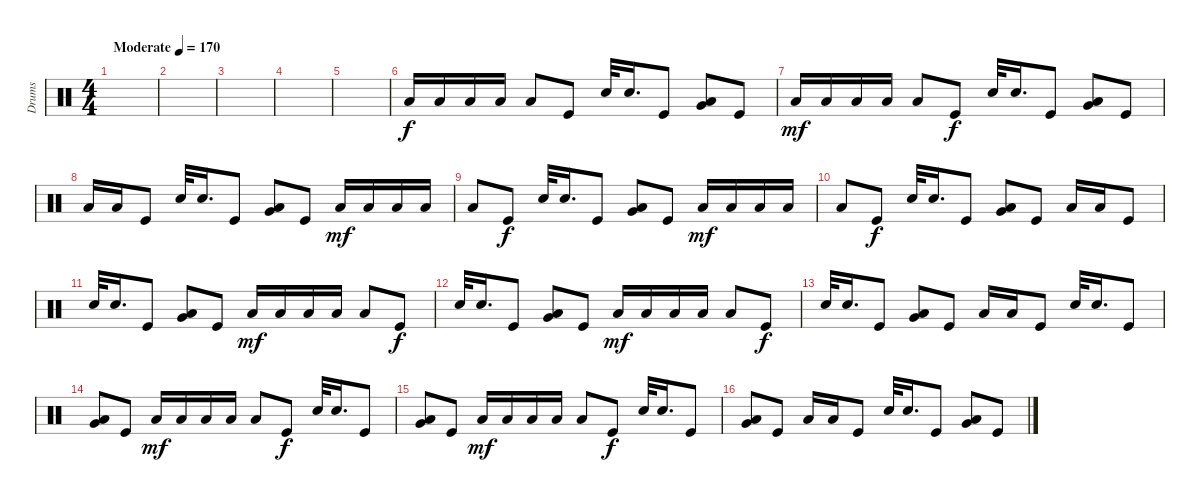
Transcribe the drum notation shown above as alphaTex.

\track ("Drums" "Drums") {instrument percussion}
\staff {score}
\articulation defaults
\ts (4 4)
\tempo (170 "Moderate")
\clef neutral
\ks c
|
|
|
|
|
"Low Floor Tom (hit)".16 "Low Floor Tom (hit)".16 "Low Floor Tom (hit)".16 "Low Floor Tom (hit)".16 "Low Floor Tom (hit)".8 "Kick (hit)".8{dy f} "Electric Snare (hit)".32 "Electric Snare (hit)".16{d} "Kick (hit)".8 ("Low Floor Tom (hit)" "Very Low Tom (hit)").8 "Kick (hit)".8 |
"Low Floor Tom (hit)".16{dy mf} "Low Floor Tom (hit)".16 "Low Floor Tom (hit)".16 "Low Floor Tom (hit)".16 "Low Floor Tom (hit)".8 "Kick (hit)".8{dy f} "Electric Snare (hit)".32 "Electric Snare (hit)".16{d} "Kick (hit)".8 ("Low Floor Tom (hit)" "Very Low Tom (hit)").8 "Kick (hit)".8 |
"Low Floor Tom (hit)".16 "Low Floor Tom (hit)".16 "Kick (hit)".8 "Electric Snare (hit)".32 "Electric Snare (hit)".16{d} "Kick (hit)".8 ("Low Floor Tom (hit)" "Very Low Tom (hit)").8 "Kick (hit)".8 "Low Floor Tom (hit)".16{dy mf} "Low Floor Tom (hit)".16 "Low Floor Tom (hit)".16 "Low Floor Tom (hit)".16 |
"Low Floor Tom (hit)".8 "Kick (hit)".8{dy f} "Electric Snare (hit)".32 "Electric Snare (hit)".16{d} "Kick (hit)".8 ("Low Floor Tom (hit)" "Very Low Tom (hit)").8 "Kick (hit)".8 "Low Floor Tom (hit)".16{dy mf} "Low Floor Tom (hit)".16 "Low Floor Tom (hit)".16 "Low Floor Tom (hit)".16 |
"Low Floor Tom (hit)".8 "Kick (hit)".8{dy f} "Electric Snare (hit)".32 "Electric Snare (hit)".16{d} "Kick (hit)".8 ("Low Floor Tom (hit)" "Very Low Tom (hit)").8 "Kick (hit)".8 "Low Floor Tom (hit)".16 "Low Floor Tom (hit)".16 "Kick (hit)".8 |
"Electric Snare (hit)".32 "Electric Snare (hit)".16{d} "Kick (hit)".8 ("Low Floor Tom (hit)" "Very Low Tom (hit)").8 "Kick (hit)".8 "Low Floor Tom (hit)".16{dy mf} "Low Floor Tom (hit)".16 "Low Floor Tom (hit)".16 "Low Floor Tom (hit)".16 "Low Floor Tom (hit)".8 "Kick (hit)".8{dy f} |
"Electric Snare (hit)".32 "Electric Snare (hit)".16{d} "Kick (hit)".8 ("Low Floor Tom (hit)" "Very Low Tom (hit)").8 "Kick (hit)".8 "Low Floor Tom (hit)".16{dy mf} "Low Floor Tom (hit)".16 "Low Floor Tom (hit)".16 "Low Floor Tom (hit)".16 "Low Floor Tom (hit)".8 "Kick (hit)".8{dy f} |
"Electric Snare (hit)".32 "Electric Snare (hit)".16{d} "Kick (hit)".8 ("Low Floor Tom (hit)" "Very Low Tom (hit)").8 "Kick (hit)".8 "Low Floor Tom (hit)".16 "Low Floor Tom (hit)".16 "Kick (hit)".8 "Electric Snare (hit)".32 "Electric Snare (hit)".16{d} "Kick (hit)".8 |
("Low Floor Tom (hit)" "Very Low Tom (hit)").8 "Kick (hit)".8 "Low Floor Tom (hit)".16{dy mf} "Low Floor Tom (hit)".16 "Low Floor Tom (hit)".16 "Low Floor Tom (hit)".16 "Low Floor Tom (hit)".8 "Kick (hit)".8{dy f} "Electric Snare (hit)".32 "Electric Snare (hit)".16{d} "Kick (hit)".8 |
("Low Floor Tom (hit)" "Very Low Tom (hit)").8 "Kick (hit)".8 "Low Floor Tom (hit)".16{dy mf} "Low Floor Tom (hit)".16 "Low Floor Tom (hit)".16 "Low Floor Tom (hit)".16 "Low Floor Tom (hit)".8 "Kick (hit)".8{dy f} "Electric Snare (hit)".32 "Electric Snare (hit)".16{d} "Kick (hit)".8 |
("Low Floor Tom (hit)" "Very Low Tom (hit)").8 "Kick (hit)".8 "Low Floor Tom (hit)".16 "Low Floor Tom (hit)".16 "Kick (hit)".8 "Electric Snare (hit)".32 "Electric Snare (hit)".16{d} "Kick (hit)".8 ("Low Floor Tom (hit)" "Very Low Tom (hit)").8 "Kick (hit)".8
